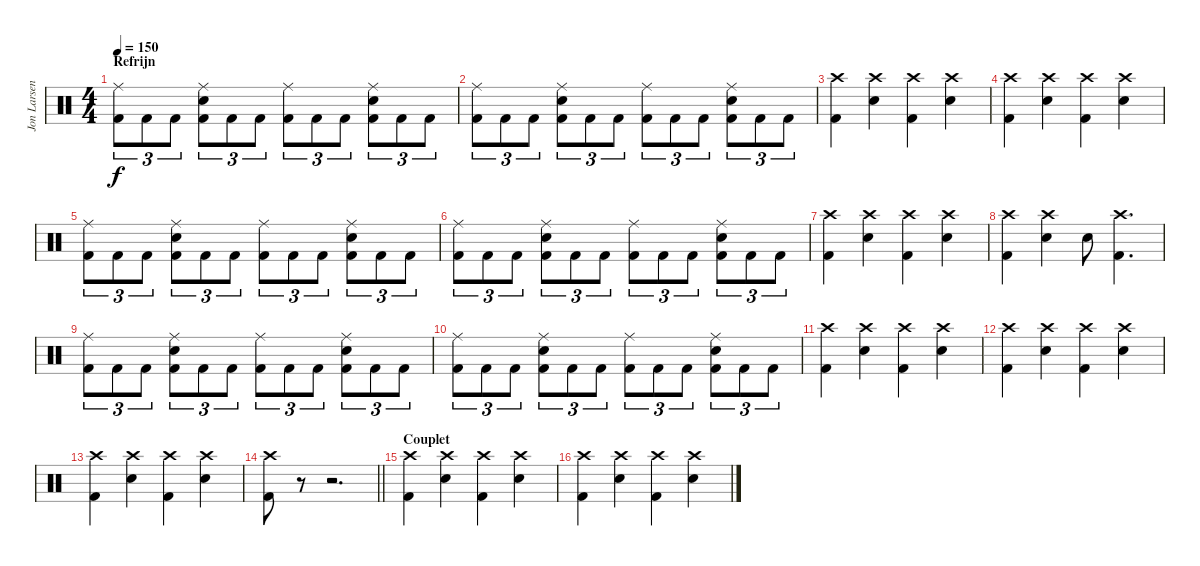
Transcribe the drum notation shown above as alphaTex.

\track ("Jon Larsen" "Jon Larsen") {instrument percussion}
\staff {score}
\articulation defaults
\ts (4 4)
\section ("" "Refrijn")
\tempo 150
\clef neutral
\ks c
("Ride (middle)" "Kick (hit) 2").8{tu (3 2) dy f} "Kick (hit) 2".8{tu (3 2)} "Kick (hit) 2".8{tu (3 2)} ("Snare (hit) 2" "Ride (middle)" "Kick (hit) 2").8{tu (3 2)} "Kick (hit) 2".8{tu (3 2)} "Kick (hit) 2".8{tu (3 2)} ("Ride (middle)" "Kick (hit) 2").8{tu (3 2)} "Kick (hit) 2".8{tu (3 2)} "Kick (hit) 2".8{tu (3 2)} ("Snare (hit) 2" "Ride (middle)" "Kick (hit) 2").8{tu (3 2)} "Kick (hit) 2".8{tu (3 2)} "Kick (hit) 2".8{tu (3 2)} |
("Ride (middle)" "Kick (hit) 2").8{tu (3 2)} "Kick (hit) 2".8{tu (3 2)} "Kick (hit) 2".8{tu (3 2)} ("Snare (hit) 2" "Ride (middle)" "Kick (hit) 2").8{tu (3 2)} "Kick (hit) 2".8{tu (3 2)} "Kick (hit) 2".8{tu (3 2)} ("Ride (middle)" "Kick (hit) 2").8{tu (3 2)} "Kick (hit) 2".8{tu (3 2)} "Kick (hit) 2".8{tu (3 2)} ("Snare (hit) 2" "Ride (middle)" "Kick (hit) 2").8{tu (3 2)} "Kick (hit) 2".8{tu (3 2)} "Kick (hit) 2".8{tu (3 2)} |
("Kick (hit) 2" "Crash high (hit)").4 ("Snare (hit) 2" "Crash high (hit)").4 ("Kick (hit) 2" "Crash high (hit)").4 ("Snare (hit) 2" "Crash high (hit)").4 |
("Kick (hit) 2" "Crash high (hit)").4 ("Snare (hit) 2" "Crash high (hit)").4 ("Kick (hit) 2" "Crash high (hit)").4 ("Snare (hit) 2" "Crash high (hit)").4 |
("Ride (middle)" "Kick (hit) 2").8{tu (3 2)} "Kick (hit) 2".8{tu (3 2)} "Kick (hit) 2".8{tu (3 2)} ("Snare (hit) 2" "Ride (middle)" "Kick (hit) 2").8{tu (3 2)} "Kick (hit) 2".8{tu (3 2)} "Kick (hit) 2".8{tu (3 2)} ("Ride (middle)" "Kick (hit) 2").8{tu (3 2)} "Kick (hit) 2".8{tu (3 2)} "Kick (hit) 2".8{tu (3 2)} ("Snare (hit) 2" "Ride (middle)" "Kick (hit) 2").8{tu (3 2)} "Kick (hit) 2".8{tu (3 2)} "Kick (hit) 2".8{tu (3 2)} |
("Ride (middle)" "Kick (hit) 2").8{tu (3 2)} "Kick (hit) 2".8{tu (3 2)} "Kick (hit) 2".8{tu (3 2)} ("Snare (hit) 2" "Ride (middle)" "Kick (hit) 2").8{tu (3 2)} "Kick (hit) 2".8{tu (3 2)} "Kick (hit) 2".8{tu (3 2)} ("Ride (middle)" "Kick (hit) 2").8{tu (3 2)} "Kick (hit) 2".8{tu (3 2)} "Kick (hit) 2".8{tu (3 2)} ("Snare (hit) 2" "Ride (middle)" "Kick (hit) 2").8{tu (3 2)} "Kick (hit) 2".8{tu (3 2)} "Kick (hit) 2".8{tu (3 2)} |
("Kick (hit) 2" "Crash high (hit)").4 ("Snare (hit) 2" "Crash high (hit)").4 ("Kick (hit) 2" "Crash high (hit)").4 ("Snare (hit) 2" "Crash high (hit)").4 |
("Kick (hit) 2" "Crash high (hit)").4 ("Snare (hit) 2" "Crash high (hit)").4 "Snare (hit) 2".8 ("Crash high (hit)" "Kick (hit) 2").4{d} |
("Ride (middle)" "Kick (hit) 2").8{tu (3 2)} "Kick (hit) 2".8{tu (3 2)} "Kick (hit) 2".8{tu (3 2)} ("Snare (hit) 2" "Ride (middle)" "Kick (hit) 2").8{tu (3 2)} "Kick (hit) 2".8{tu (3 2)} "Kick (hit) 2".8{tu (3 2)} ("Ride (middle)" "Kick (hit) 2").8{tu (3 2)} "Kick (hit) 2".8{tu (3 2)} "Kick (hit) 2".8{tu (3 2)} ("Snare (hit) 2" "Ride (middle)" "Kick (hit) 2").8{tu (3 2)} "Kick (hit) 2".8{tu (3 2)} "Kick (hit) 2".8{tu (3 2)} |
("Ride (middle)" "Kick (hit) 2").8{tu (3 2)} "Kick (hit) 2".8{tu (3 2)} "Kick (hit) 2".8{tu (3 2)} ("Snare (hit) 2" "Ride (middle)" "Kick (hit) 2").8{tu (3 2)} "Kick (hit) 2".8{tu (3 2)} "Kick (hit) 2".8{tu (3 2)} ("Ride (middle)" "Kick (hit) 2").8{tu (3 2)} "Kick (hit) 2".8{tu (3 2)} "Kick (hit) 2".8{tu (3 2)} ("Snare (hit) 2" "Ride (middle)" "Kick (hit) 2").8{tu (3 2)} "Kick (hit) 2".8{tu (3 2)} "Kick (hit) 2".8{tu (3 2)} |
("Kick (hit) 2" "Crash high (hit)").4 ("Snare (hit) 2" "Crash high (hit)").4 ("Kick (hit) 2" "Crash high (hit)").4 ("Snare (hit) 2" "Crash high (hit)").4 |
("Kick (hit) 2" "Crash high (hit)").4 ("Snare (hit) 2" "Crash high (hit)").4 ("Kick (hit) 2" "Crash high (hit)").4 ("Snare (hit) 2" "Crash high (hit)").4 |
("Kick (hit) 2" "Crash high (hit)").4 ("Snare (hit) 2" "Crash high (hit)").4 ("Kick (hit) 2" "Crash high (hit)").4 ("Snare (hit) 2" "Crash high (hit)").4 |
\barLineRight lightlight
("Crash high (hit)" "Kick (hit) 2").8 r.8 r.2{d} |
\section ("" "Couplet")
("Kick (hit) 2" "Crash high (hit)").4 ("Snare (hit) 2" "Crash high (hit)").4 ("Kick (hit) 2" "Crash high (hit)").4 ("Snare (hit) 2" "Crash high (hit)").4 |
("Kick (hit) 2" "Crash high (hit)").4 ("Snare (hit) 2" "Crash high (hit)").4 ("Kick (hit) 2" "Crash high (hit)").4 ("Snare (hit) 2" "Crash high (hit)").4
